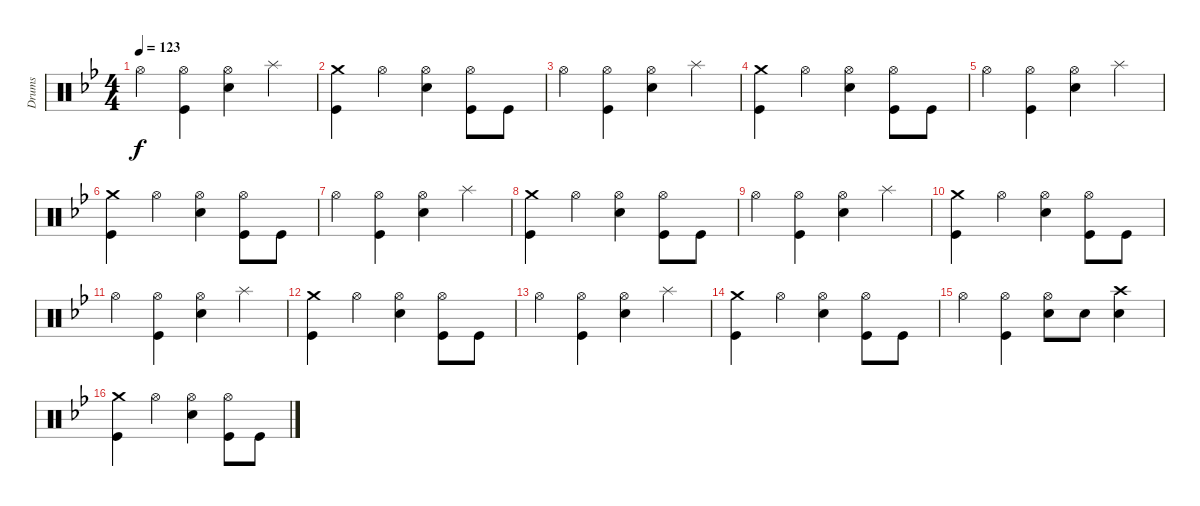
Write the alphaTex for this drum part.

\track ("Drums" "Drums") {instrument percussion}
\staff {score}
\articulation defaults
\ts (4 4)
\tempo 123
\clef neutral
\ks bb "Hi-Hat (open)".4{dy f}
("Hi-Hat (open)" "Kick (hit)").4 ("Hi-Hat (open)" "Snare (hit) 2").4 "Splash (hit)".4 |
("Crash medium (hit)" "Kick (hit)").4 "Hi-Hat (open)".4 ("Hi-Hat (open)" "Snare (hit) 2").4 ("Hi-Hat (open)" "Kick (hit)").8 "Kick (hit)".8 |
"Hi-Hat (open)".4 ("Hi-Hat (open)" "Kick (hit)").4 ("Hi-Hat (open)" "Snare (hit) 2").4 "Splash (hit)".4 |
("Crash medium (hit)" "Kick (hit)").4 "Hi-Hat (open)".4 ("Hi-Hat (open)" "Snare (hit) 2").4 ("Hi-Hat (open)" "Kick (hit)").8 "Kick (hit)".8 |
"Hi-Hat (open)".4 ("Hi-Hat (open)" "Kick (hit)").4 ("Hi-Hat (open)" "Snare (hit) 2").4 "Splash (hit)".4 |
("Crash medium (hit)" "Kick (hit)").4 "Hi-Hat (open)".4 ("Hi-Hat (open)" "Snare (hit) 2").4 ("Hi-Hat (open)" "Kick (hit)").8 "Kick (hit)".8 |
"Hi-Hat (open)".4 ("Hi-Hat (open)" "Kick (hit)").4 ("Hi-Hat (open)" "Snare (hit) 2").4 "Splash (hit)".4 |
("Crash medium (hit)" "Kick (hit)").4 "Hi-Hat (open)".4 ("Hi-Hat (open)" "Snare (hit) 2").4 ("Hi-Hat (open)" "Kick (hit)").8 "Kick (hit)".8 |
"Hi-Hat (open)".4 ("Hi-Hat (open)" "Kick (hit)").4 ("Hi-Hat (open)" "Snare (hit) 2").4 "Splash (hit)".4 |
("Crash medium (hit)" "Kick (hit)").4 "Hi-Hat (open)".4 ("Hi-Hat (open)" "Snare (hit) 2").4 ("Hi-Hat (open)" "Kick (hit)").8 "Kick (hit)".8 |
"Hi-Hat (open)".4 ("Hi-Hat (open)" "Kick (hit)").4 ("Hi-Hat (open)" "Snare (hit) 2").4 "Splash (hit)".4 |
("Crash medium (hit)" "Kick (hit)").4 "Hi-Hat (open)".4 ("Hi-Hat (open)" "Snare (hit) 2").4 ("Hi-Hat (open)" "Kick (hit)").8 "Kick (hit)".8 |
"Hi-Hat (open)".4 ("Hi-Hat (open)" "Kick (hit)").4 ("Hi-Hat (open)" "Snare (hit) 2").4 "Splash (hit)".4 |
("Crash medium (hit)" "Kick (hit)").4 "Hi-Hat (open)".4 ("Hi-Hat (open)" "Snare (hit) 2").4 ("Hi-Hat (open)" "Kick (hit)").8 "Kick (hit)".8 |
"Hi-Hat (open)".4 ("Hi-Hat (open)" "Kick (hit)").4 ("Hi-Hat (open)" "Snare (hit) 2").8 "Snare (hit) 2".8 ("Crash high (hit)" "Snare (hit) 2").4 |
("Crash medium (hit)" "Kick (hit)").4 "Hi-Hat (open)".4 ("Hi-Hat (open)" "Snare (hit) 2").4 ("Hi-Hat (open)" "Kick (hit)").8 "Kick (hit)".8
